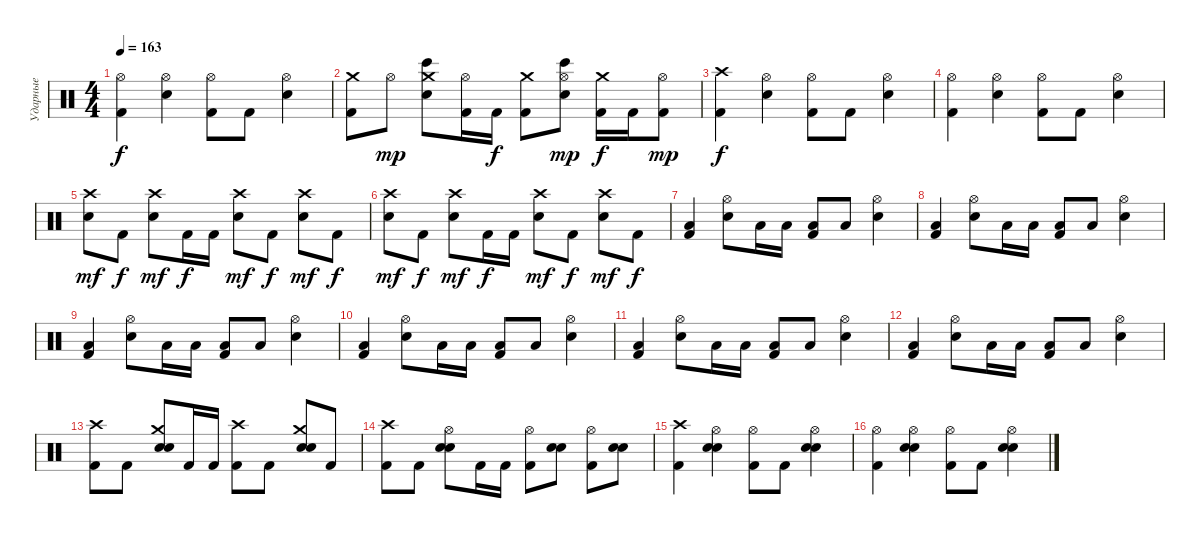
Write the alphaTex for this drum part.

\track ("Ударные" "Ударные") {instrument percussion}
\staff {score}
\articulation defaults
\ts (4 4)
\tempo 163
\clef neutral
\ks c
("Kick (hit) 2" "Hi-Hat (open)").4{dy f} ("Snare (hit) 2" "Hi-Hat (open)").4 ("Kick (hit) 2" "Hi-Hat (open)").8 "Kick (hit) 2".8 ("Snare (hit) 2" "Hi-Hat (open)").4 |
("Kick (hit) 2" "Crash medium (hit)").8 "Hi-Hat (open)".8{dy mp} ("Electric Snare (hit)" "Bongo High (hit)" "Crash medium (hit)").8 ("Kick (hit) 2" "Hi-Hat (open)").16 "Kick (hit) 2".16{dy f} ("Kick (hit) 2" "Crash medium (hit)").8 ("Electric Snare (hit)" "Bongo High (hit)" "Hi-Hat (open)").8{dy mp} ("Kick (hit) 2" "Crash medium (hit)").16{dy f} "Kick (hit) 2".16 ("Kick (hit) 2" "Hi-Hat (open)").8{dy mp} |
("Kick (hit) 2" "Crash high (hit)").4{dy f} ("Snare (hit) 2" "Hi-Hat (open)").4 ("Kick (hit) 2" "Hi-Hat (open)").8 "Kick (hit) 2".8 ("Snare (hit) 2" "Hi-Hat (open)").4 |
("Kick (hit) 2" "Hi-Hat (open)").4 ("Snare (hit) 2" "Hi-Hat (open)").4 ("Kick (hit) 2" "Hi-Hat (open)").8 "Kick (hit) 2".8 ("Snare (hit) 2" "Hi-Hat (open)").4 |
("Snare (hit) 2" "Crash high (hit)").8{dy mf} "Kick (hit) 2".8{dy f} ("Snare (hit) 2" "Crash high (hit)").8{dy mf} "Kick (hit) 2".16{dy f} "Kick (hit) 2".16 ("Snare (hit) 2" "Crash high (hit)").8{dy mf} "Kick (hit) 2".8{dy f} ("Snare (hit) 2" "Crash high (hit)").8{dy mf} "Kick (hit) 2".8{dy f} |
("Snare (hit) 2" "Crash high (hit)").8{dy mf} "Kick (hit) 2".8{dy f} ("Snare (hit) 2" "Crash high (hit)").8{dy mf} "Kick (hit) 2".16{dy f} "Kick (hit) 2".16 ("Snare (hit) 2" "Crash high (hit)").8{dy mf} "Kick (hit) 2".8{dy f} ("Snare (hit) 2" "Crash high (hit)").8{dy mf} "Kick (hit) 2".8{dy f} |
("Kick (hit) 2" "Low Tom (hit)").4 ("Snare (hit) 2" "Hi-Hat (open)").8 "Low Tom (hit)".16 "Low Tom (hit)".16 ("Kick (hit) 2" "Low Tom (hit)").8 "Low Tom (hit)".8 ("Snare (hit) 2" "Hi-Hat (open)").4 |
("Kick (hit) 2" "Low Tom (hit)").4 ("Snare (hit) 2" "Hi-Hat (open)").8 "Low Tom (hit)".16 "Low Tom (hit)".16 ("Kick (hit) 2" "Low Tom (hit)").8 "Low Tom (hit)".8 ("Snare (hit) 2" "Hi-Hat (open)").4 |
("Kick (hit) 2" "Low Tom (hit)").4 ("Snare (hit) 2" "Hi-Hat (open)").8 "Low Tom (hit)".16 "Low Tom (hit)".16 ("Kick (hit) 2" "Low Tom (hit)").8 "Low Tom (hit)".8 ("Snare (hit) 2" "Hi-Hat (open)").4 |
("Kick (hit) 2" "Low Tom (hit)").4 ("Snare (hit) 2" "Hi-Hat (open)").8 "Low Tom (hit)".16 "Low Tom (hit)".16 ("Kick (hit) 2" "Low Tom (hit)").8 "Low Tom (hit)".8 ("Snare (hit) 2" "Hi-Hat (open)").4 |
("Kick (hit) 2" "Low Tom (hit)").4 ("Snare (hit) 2" "Hi-Hat (open)").8 "Low Tom (hit)".16 "Low Tom (hit)".16 ("Kick (hit) 2" "Low Tom (hit)").8 "Low Tom (hit)".8 ("Snare (hit) 2" "Hi-Hat (open)").4 |
("Kick (hit) 2" "Low Tom (hit)").4 ("Snare (hit) 2" "Hi-Hat (open)").8 "Low Tom (hit)".16 "Low Tom (hit)".16 ("Kick (hit) 2" "Low Tom (hit)").8 "Low Tom (hit)".8 ("Snare (hit) 2" "Hi-Hat (open)").4 |
("Kick (hit) 2" "Crash high (hit)").8 "Kick (hit) 2".8 ("Electric Snare (hit)" "Snare (hit) 2" "Crash medium (hit)").8 "Kick (hit) 2".16 "Kick (hit) 2".16 ("Kick (hit) 2" "Crash high (hit)").8 "Kick (hit) 2".8 ("Electric Snare (hit)" "Snare (hit) 2" "Crash medium (hit)").8 "Kick (hit) 2".8 |
("Kick (hit) 2" "Crash high (hit)").8 "Kick (hit) 2".8 ("Electric Snare (hit)" "Snare (hit) 2" "Hi-Hat (open)").8 "Kick (hit) 2".16 "Kick (hit) 2".16 ("Kick (hit) 2" "Hi-Hat (open)").8 ("Electric Snare (hit)" "Snare (hit) 2").8 ("Kick (hit) 2" "Hi-Hat (open)").8 ("Electric Snare (hit)" "Snare (hit) 2").8 |
("Kick (hit) 2" "Crash high (hit)").4 ("Electric Snare (hit)" "Snare (hit) 2" "Hi-Hat (open)").4 ("Kick (hit) 2" "Hi-Hat (open)").8 "Kick (hit) 2".8 ("Electric Snare (hit)" "Snare (hit) 2" "Hi-Hat (open)").4 |
("Kick (hit) 2" "Hi-Hat (open)").4 ("Electric Snare (hit)" "Snare (hit) 2" "Hi-Hat (open)").4 ("Kick (hit) 2" "Hi-Hat (open)").8 "Kick (hit) 2".8 ("Electric Snare (hit)" "Snare (hit) 2" "Hi-Hat (open)").4
